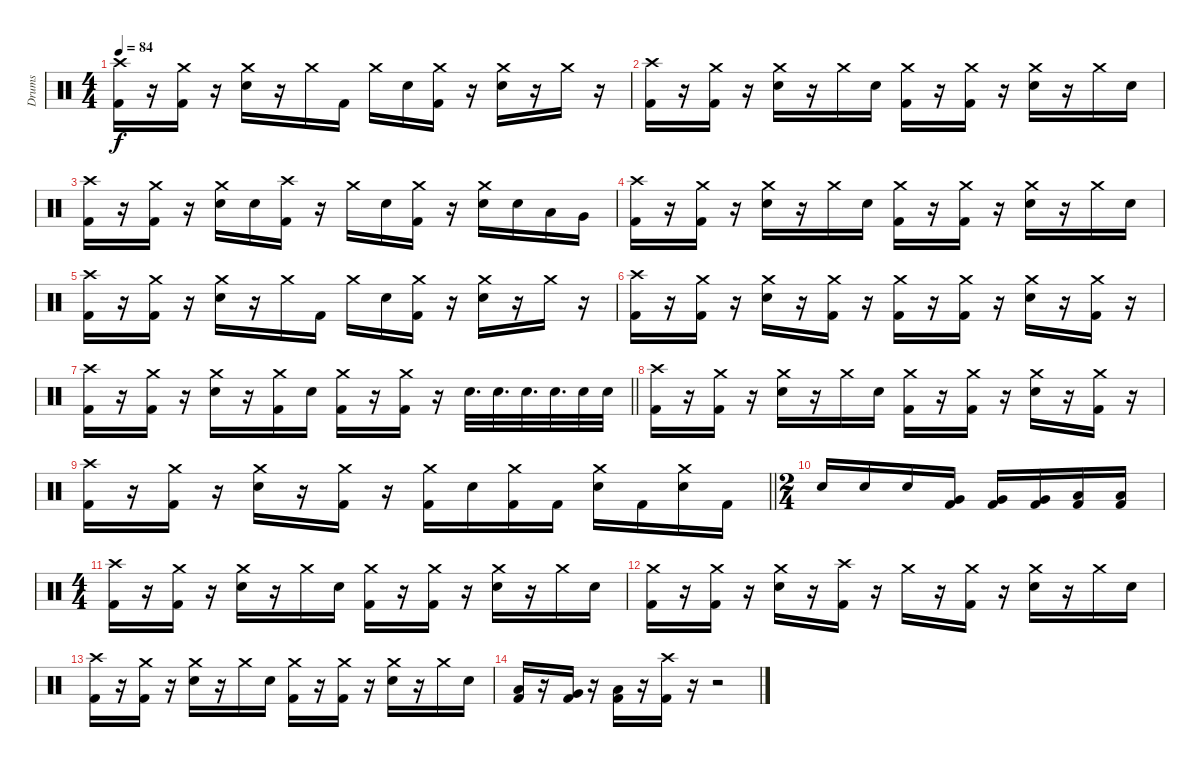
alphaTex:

\track ("Drums" "Drums") {instrument percussion}
\staff {score}
\articulation defaults
\ts (4 4)
\tempo 84
\clef neutral
\ks c
("Crash high (hit)" "Kick (hit) 2").16{dy f} r.16 ("Crash medium (hit)" "Kick (hit) 2").16 r.16 ("Crash medium (hit)" "Electric Snare (hit)").16 r.16 "Crash medium (hit)".16 "Kick (hit) 2".16 "Crash medium (hit)".16 "Electric Snare (hit)".16 ("Crash medium (hit)" "Kick (hit) 2").16 r.16 ("Crash medium (hit)" "Electric Snare (hit)").16 r.16 "Crash medium (hit)".16 r.16 |
("Crash high (hit)" "Kick (hit) 2").16 r.16 ("Crash medium (hit)" "Kick (hit) 2").16 r.16 ("Crash medium (hit)" "Electric Snare (hit)").16 r.16 "Crash medium (hit)".16 "Electric Snare (hit)".16 ("Crash medium (hit)" "Kick (hit) 2").16 r.16 ("Crash medium (hit)" "Kick (hit) 2").16 r.16 ("Crash medium (hit)" "Electric Snare (hit)").16 r.16 "Crash medium (hit)".16 "Electric Snare (hit)".16 |
("Crash high (hit)" "Kick (hit) 2").16 r.16 ("Crash medium (hit)" "Kick (hit) 2").16 r.16 ("Crash medium (hit)" "Electric Snare (hit)").16 "Electric Snare (hit)".16 ("Crash high (hit)" "Kick (hit) 2").16 r.16 "Crash medium (hit)".16 "Electric Snare (hit)".16 ("Crash medium (hit)" "Kick (hit) 2").16 r.16 ("Crash medium (hit)" "Electric Snare (hit)").16 "Electric Snare (hit)".16 "Low Tom (hit)".16 "Very Low Tom (hit)".16 |
("Crash high (hit)" "Kick (hit) 2").16 r.16 ("Crash medium (hit)" "Kick (hit) 2").16 r.16 ("Crash medium (hit)" "Electric Snare (hit)").16 r.16 "Crash medium (hit)".16 "Electric Snare (hit)".16 ("Crash medium (hit)" "Kick (hit) 2").16 r.16 ("Crash medium (hit)" "Kick (hit) 2").16 r.16 ("Crash medium (hit)" "Electric Snare (hit)").16 r.16 "Crash medium (hit)".16 "Electric Snare (hit)".16 |
("Crash high (hit)" "Kick (hit) 2").16 r.16 ("Crash medium (hit)" "Kick (hit) 2").16 r.16 ("Crash medium (hit)" "Electric Snare (hit)").16 r.16 "Crash medium (hit)".16 "Kick (hit) 2".16 "Crash medium (hit)".16 "Electric Snare (hit)".16 ("Crash medium (hit)" "Kick (hit) 2").16 r.16 ("Crash medium (hit)" "Electric Snare (hit)").16 r.16 "Crash medium (hit)".16 r.16 |
("Crash high (hit)" "Kick (hit) 2").16 r.16 ("Crash medium (hit)" "Kick (hit) 2").16 r.16 ("Crash medium (hit)" "Electric Snare (hit)").16 r.16 ("Crash medium (hit)" "Kick (hit) 2").16 r.16 ("Crash medium (hit)" "Kick (hit) 2").16 r.16 ("Crash medium (hit)" "Kick (hit) 2").16 r.16 ("Crash medium (hit)" "Electric Snare (hit)").16 r.16 ("Crash medium (hit)" "Kick (hit) 2").16 r.16 |
\barLineRight lightlight
("Crash high (hit)" "Kick (hit) 2").16 r.16 ("Crash medium (hit)" "Kick (hit) 2").16 r.16 ("Crash medium (hit)" "Electric Snare (hit)").16 r.16 ("Crash medium (hit)" "Kick (hit) 2").16 "Electric Snare (hit)".16 ("Crash medium (hit)" "Kick (hit) 2").16 r.16 ("Crash medium (hit)" "Kick (hit) 2").16 r.16 "Electric Snare (hit)".32{d} "Electric Snare (hit)".32{d} "Electric Snare (hit)".32{d} "Electric Snare (hit)".32{d} "Electric Snare (hit)".32 "Electric Snare (hit)".32 |
("Crash high (hit)" "Kick (hit) 2").16 r.16 ("Crash medium (hit)" "Kick (hit) 2").16 r.16 ("Crash medium (hit)" "Electric Snare (hit)").16 r.16 "Crash medium (hit)".16 "Electric Snare (hit)".16 ("Crash medium (hit)" "Kick (hit) 2").16 r.16 ("Crash medium (hit)" "Kick (hit) 2").16 r.16 ("Crash medium (hit)" "Electric Snare (hit)").16 r.16 ("Crash medium (hit)" "Kick (hit) 2").16 r.16 |
\barLineRight lightlight
("Crash high (hit)" "Kick (hit) 2").16 r.16 ("Crash medium (hit)" "Kick (hit) 2").16 r.16 ("Crash medium (hit)" "Electric Snare (hit)").16 r.16 ("Crash medium (hit)" "Kick (hit) 2").16 r.16 ("Crash medium (hit)" "Kick (hit) 2").16 "Electric Snare (hit)".16 ("Crash medium (hit)" "Kick (hit) 2").16 "Kick (hit) 2".16 ("Crash medium (hit)" "Electric Snare (hit)").16 "Kick (hit) 2".16 ("Crash medium (hit)" "Electric Snare (hit)").16 "Kick (hit) 2".16 |
\ts (2 4)
"Electric Snare (hit)".16 "Electric Snare (hit)".16 "Electric Snare (hit)".16 ("Very Low Tom (hit)" "Kick (hit) 2").16 ("Very Low Tom (hit)" "Kick (hit) 2").16 ("Very Low Tom (hit)" "Kick (hit) 2").16 ("Low Floor Tom (hit)" "Kick (hit) 2").16 ("Low Floor Tom (hit)" "Kick (hit) 2").16 |
\ts (4 4)
("Crash high (hit)" "Kick (hit) 2").16 r.16 ("Crash medium (hit)" "Kick (hit) 2").16 r.16 ("Crash medium (hit)" "Electric Snare (hit)").16 r.16 "Crash medium (hit)".16 "Electric Snare (hit)".16 ("Crash medium (hit)" "Kick (hit) 2").16 r.16 ("Crash medium (hit)" "Kick (hit) 2").16 r.16 ("Crash medium (hit)" "Electric Snare (hit)").16 r.16 "Crash medium (hit)".16 "Electric Snare (hit)".16 |
("Crash medium (hit)" "Kick (hit) 2").16 r.16 ("Crash medium (hit)" "Kick (hit) 2").16 r.16 ("Crash medium (hit)" "Electric Snare (hit)").16 r.16 ("Crash high (hit)" "Kick (hit) 2").16 r.16 "Crash medium (hit)".16 r.16 ("Crash medium (hit)" "Kick (hit) 2").16 r.16 ("Crash medium (hit)" "Electric Snare (hit)").16 r.16 "Crash medium (hit)".16 "Electric Snare (hit)".16 |
("Crash high (hit)" "Kick (hit) 2").16 r.16 ("Crash medium (hit)" "Kick (hit) 2").16 r.16 ("Crash medium (hit)" "Electric Snare (hit)").16 r.16 "Crash medium (hit)".16 "Electric Snare (hit)".16 ("Crash medium (hit)" "Kick (hit) 2").16 r.16 ("Crash medium (hit)" "Kick (hit) 2").16 r.16 ("Crash medium (hit)" "Electric Snare (hit)").16 r.16 "Crash medium (hit)".16 "Electric Snare (hit)".16 |
("Low Tom (hit)" "Kick (hit) 2").16 r.16 ("Very Low Tom (hit)" "Kick (hit) 2").16 r.16 ("Low Floor Tom (hit)" "Kick (hit) 2").16 r.16 ("Crash high (hit)" "Kick (hit) 2").16 r.16 r.2
